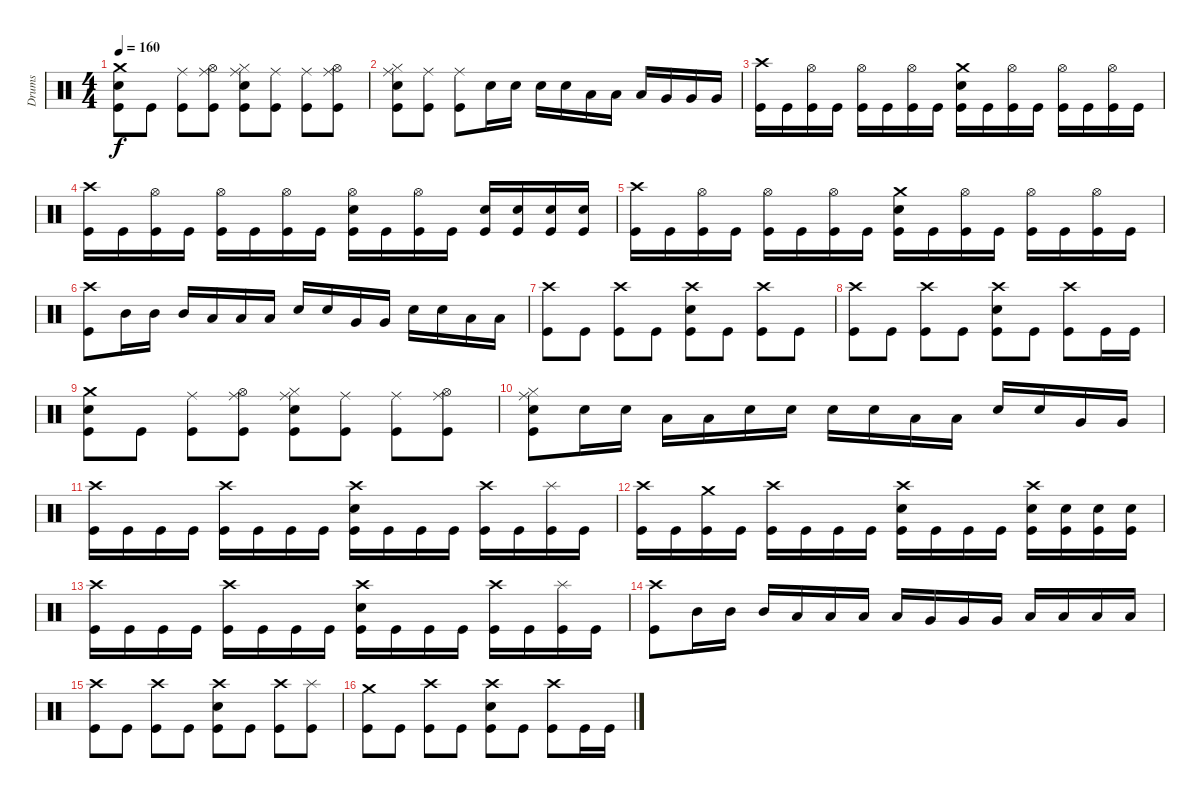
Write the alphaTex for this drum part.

\track ("Drums" "Drums") {instrument percussion}
\staff {score}
\articulation defaults
\ts (4 4)
\tempo 160
\clef neutral
\ks c
("Crash medium (hit)" "Electric Snare (hit)" "Kick (hit)").8{dy f} "Kick (hit)".8 ("Ride (middle)" "Kick (hit)").8 ("Hi-Hat (open)" "Ride (middle)" "Kick (hit)").8 ("Hi-Hat (closed)" "Ride (middle)" "Electric Snare (hit)" "Kick (hit)").8 ("Ride (middle)" "Kick (hit)").8 ("Ride (middle)" "Kick (hit)").8 ("Hi-Hat (open)" "Ride (middle)" "Kick (hit)").8 |
("Hi-Hat (closed)" "Ride (middle)" "Electric Snare (hit)" "Kick (hit)").8 ("Ride (middle)" "Kick (hit)").8 ("Ride (middle)" "Kick (hit)").8 "Electric Snare (hit)".16 "Electric Snare (hit)".16 "Electric Snare (hit)".16 "Electric Snare (hit)".16 "Low Tom (hit)".16 "Low Tom (hit)".16 "Low Tom (hit)".16 "Very Low Tom (hit)".16 "Very Low Tom (hit)".16 "Very Low Tom (hit)".16 |
("Crash high (hit)" "Kick (hit)").16 "Kick (hit)".16 ("Hi-Hat (open)" "Kick (hit)").16 "Kick (hit)".16 ("Hi-Hat (open)" "Kick (hit)").16 "Kick (hit)".16 ("Hi-Hat (open)" "Kick (hit)").16 "Kick (hit)".16 ("Crash medium (hit)" "Electric Snare (hit)" "Kick (hit)").16 "Kick (hit)".16 ("Hi-Hat (open)" "Kick (hit)").16 "Kick (hit)".16 ("Hi-Hat (open)" "Kick (hit)").16 "Kick (hit)".16 ("Hi-Hat (open)" "Kick (hit)").16 "Kick (hit)".16 |
("Crash high (hit)" "Kick (hit)").16 "Kick (hit)".16 ("Hi-Hat (open)" "Kick (hit)").16 "Kick (hit)".16 ("Hi-Hat (open)" "Kick (hit)").16 "Kick (hit)".16 ("Hi-Hat (open)" "Kick (hit)").16 "Kick (hit)".16 ("Hi-Hat (open)" "Electric Snare (hit)" "Kick (hit)").16 "Kick (hit)".16 ("Hi-Hat (open)" "Kick (hit)").16 "Kick (hit)".16 ("Electric Snare (hit)" "Kick (hit)").16 ("Electric Snare (hit)" "Kick (hit)").16 ("Electric Snare (hit)" "Kick (hit)").16 ("Electric Snare (hit)" "Kick (hit)").16 |
("Crash high (hit)" "Kick (hit)").16 "Kick (hit)".16 ("Hi-Hat (open)" "Kick (hit)").16 "Kick (hit)".16 ("Hi-Hat (open)" "Kick (hit)").16 "Kick (hit)".16 ("Hi-Hat (open)" "Kick (hit)").16 "Kick (hit)".16 ("Crash medium (hit)" "Electric Snare (hit)" "Kick (hit)").16 "Kick (hit)".16 ("Hi-Hat (open)" "Kick (hit)").16 "Kick (hit)".16 ("Hi-Hat (open)" "Kick (hit)").16 "Kick (hit)".16 ("Hi-Hat (open)" "Kick (hit)").16 "Kick (hit)".16 |
("Crash high (hit)" "Kick (hit)").8 "Mid Tom (hit)".16 "Mid Tom (hit)".16 "Mid Tom (hit)".16 "Low Tom (hit)".16 "Low Tom (hit)".16 "Low Tom (hit)".16 "Electric Snare (hit)".16 "Electric Snare (hit)".16 "Very Low Tom (hit)".16 "Very Low Tom (hit)".16 "Electric Snare (hit)".16 "Electric Snare (hit)".16 "Low Floor Tom (hit)".16 "Low Floor Tom (hit)".16 |
("Crash high (hit)" "Kick (hit)").8 "Kick (hit)".8 ("Crash high (hit)" "Kick (hit)").8 "Kick (hit)".8 ("Crash high (hit)" "Electric Snare (hit)" "Kick (hit)").8 "Kick (hit)".8 ("Crash high (hit)" "Kick (hit)").8 "Kick (hit)".8 |
("Crash high (hit)" "Kick (hit)").8 "Kick (hit)".8 ("Crash high (hit)" "Kick (hit)").8 "Kick (hit)".8 ("Crash high (hit)" "Electric Snare (hit)" "Kick (hit)").8 "Kick (hit)".8 ("Crash high (hit)" "Kick (hit)").8 "Kick (hit)".16 "Kick (hit)".16 |
("Crash medium (hit)" "Electric Snare (hit)" "Kick (hit)").8 "Kick (hit)".8 ("Ride (middle)" "Kick (hit)").8 ("Hi-Hat (open)" "Ride (middle)" "Kick (hit)").8 ("Hi-Hat (closed)" "Ride (middle)" "Electric Snare (hit)" "Kick (hit)").8 ("Ride (middle)" "Kick (hit)").8 ("Ride (middle)" "Kick (hit)").8 ("Hi-Hat (open)" "Ride (middle)" "Kick (hit)").8 |
("Hi-Hat (closed)" "Ride (middle)" "Electric Snare (hit)" "Kick (hit)").8 "Electric Snare (hit)".16 "Electric Snare (hit)".16 "Low Tom (hit)".16 "Low Tom (hit)".16 "Electric Snare (hit)".16 "Electric Snare (hit)".16 "Electric Snare (hit)".16 "Electric Snare (hit)".16 "Low Tom (hit)".16 "Low Tom (hit)".16 "Electric Snare (hit)".16 "Electric Snare (hit)".16 "Very Low Tom (hit)".16 "Very Low Tom (hit)".16 |
("Crash high (hit)" "Kick (hit)").16 "Kick (hit)".16 "Kick (hit)".16 "Kick (hit)".16 ("Crash high (hit)" "Kick (hit)").16 "Kick (hit)".16 "Kick (hit)".16 "Kick (hit)".16 ("Crash high (hit)" "Electric Snare (hit)" "Kick (hit)").16 "Kick (hit)".16 "Kick (hit)".16 "Kick (hit)".16 ("Crash high (hit)" "Kick (hit)").16 "Kick (hit)".16 ("Splash (hit)" "Kick (hit)").16 "Kick (hit)".16 |
("Crash high (hit)" "Kick (hit)").16 "Kick (hit)".16 ("Crash medium (hit)" "Kick (hit)").16 "Kick (hit)".16 ("Crash high (hit)" "Kick (hit)").16 "Kick (hit)".16 "Kick (hit)".16 "Kick (hit)".16 ("Crash high (hit)" "Electric Snare (hit)" "Kick (hit)").16 "Kick (hit)".16 "Kick (hit)".16 "Kick (hit)".16 ("Crash high (hit)" "Electric Snare (hit)" "Kick (hit)").16 ("Electric Snare (hit)" "Kick (hit)").16 ("Electric Snare (hit)" "Kick (hit)").16 ("Electric Snare (hit)" "Kick (hit)").16 |
("Crash high (hit)" "Kick (hit)").16 "Kick (hit)".16 "Kick (hit)".16 "Kick (hit)".16 ("Crash high (hit)" "Kick (hit)").16 "Kick (hit)".16 "Kick (hit)".16 "Kick (hit)".16 ("Crash high (hit)" "Electric Snare (hit)" "Kick (hit)").16 "Kick (hit)".16 "Kick (hit)".16 "Kick (hit)".16 ("Crash high (hit)" "Kick (hit)").16 "Kick (hit)".16 ("Splash (hit)" "Kick (hit)").16 "Kick (hit)".16 |
("Crash high (hit)" "Kick (hit)").8 "Mid Tom (hit)".16 "Mid Tom (hit)".16 "Mid Tom (hit)".16 "Low Tom (hit)".16 "Low Tom (hit)".16 "Low Tom (hit)".16 "Low Tom (hit)".16 "Very Low Tom (hit)".16 "Very Low Tom (hit)".16 "Very Low Tom (hit)".16 "Low Floor Tom (hit)".16 "Low Floor Tom (hit)".16 "Low Floor Tom (hit)".16 "Low Floor Tom (hit)".16 |
("Crash high (hit)" "Kick (hit)").8 "Kick (hit)".8 ("Crash high (hit)" "Kick (hit)").8 "Kick (hit)".8 ("Crash high (hit)" "Electric Snare (hit)" "Kick (hit)").8 "Kick (hit)".8 ("Crash high (hit)" "Kick (hit)").8 ("Splash (hit)" "Kick (hit)").8 |
("Crash medium (hit)" "Kick (hit)").8 "Kick (hit)".8 ("Crash high (hit)" "Kick (hit)").8 "Kick (hit)".8 ("Crash high (hit)" "Electric Snare (hit)" "Kick (hit)").8 "Kick (hit)".8 ("Crash high (hit)" "Kick (hit)").8 "Kick (hit)".16 "Kick (hit)".16
